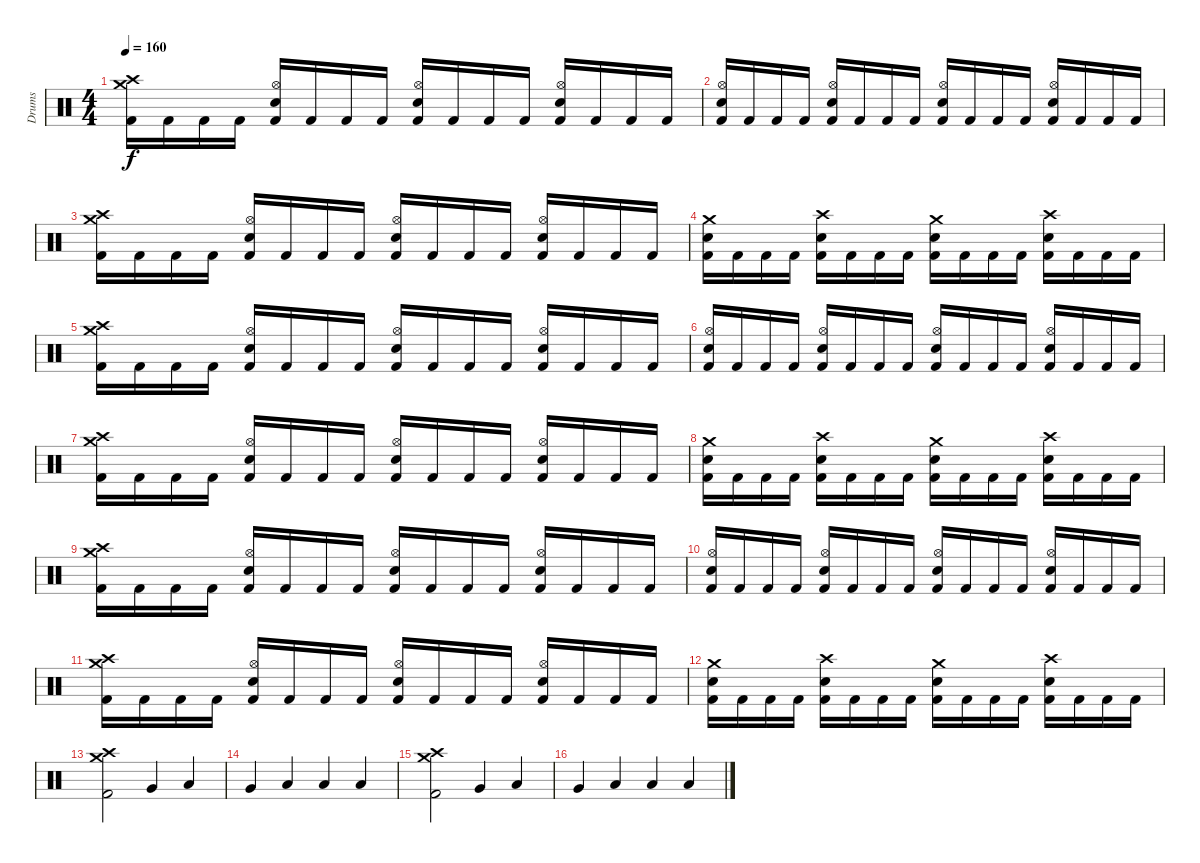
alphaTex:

\track ("Drums" "Drums") {instrument percussion}
\staff {score}
\articulation defaults
\ts (4 4)
\tempo 160
\clef neutral
\ks c
("Crash high (hit)" "Crash medium (hit)" "Kick (hit) 2").16{dy f} "Kick (hit) 2".16 "Kick (hit) 2".16 "Kick (hit) 2".16 ("Hi-Hat (open)" "Snare (hit) 2" "Kick (hit) 2").16 "Kick (hit) 2".16 "Kick (hit) 2".16 "Kick (hit) 2".16 ("Hi-Hat (open)" "Snare (hit) 2" "Kick (hit) 2").16 "Kick (hit) 2".16 "Kick (hit) 2".16 "Kick (hit) 2".16 ("Hi-Hat (open)" "Snare (hit) 2" "Kick (hit) 2").16 "Kick (hit) 2".16 "Kick (hit) 2".16 "Kick (hit) 2".16 |
("Hi-Hat (open)" "Snare (hit) 2" "Kick (hit) 2").16 "Kick (hit) 2".16 "Kick (hit) 2".16 "Kick (hit) 2".16 ("Hi-Hat (open)" "Snare (hit) 2" "Kick (hit) 2").16 "Kick (hit) 2".16 "Kick (hit) 2".16 "Kick (hit) 2".16 ("Hi-Hat (open)" "Snare (hit) 2" "Kick (hit) 2").16 "Kick (hit) 2".16 "Kick (hit) 2".16 "Kick (hit) 2".16 ("Hi-Hat (open)" "Snare (hit) 2" "Kick (hit) 2").16 "Kick (hit) 2".16 "Kick (hit) 2".16 "Kick (hit) 2".16 |
("Crash high (hit)" "Crash medium (hit)" "Kick (hit) 2").16 "Kick (hit) 2".16 "Kick (hit) 2".16 "Kick (hit) 2".16 ("Hi-Hat (open)" "Snare (hit) 2" "Kick (hit) 2").16 "Kick (hit) 2".16 "Kick (hit) 2".16 "Kick (hit) 2".16 ("Hi-Hat (open)" "Snare (hit) 2" "Kick (hit) 2").16 "Kick (hit) 2".16 "Kick (hit) 2".16 "Kick (hit) 2".16 ("Hi-Hat (open)" "Snare (hit) 2" "Kick (hit) 2").16 "Kick (hit) 2".16 "Kick (hit) 2".16 "Kick (hit) 2".16 |
("Crash medium (hit)" "Snare (hit) 2" "Kick (hit) 2").16 "Kick (hit) 2".16 "Kick (hit) 2".16 "Kick (hit) 2".16 ("Crash high (hit)" "Snare (hit) 2" "Kick (hit) 2").16 "Kick (hit) 2".16 "Kick (hit) 2".16 "Kick (hit) 2".16 ("Crash medium (hit)" "Snare (hit) 2" "Kick (hit) 2").16 "Kick (hit) 2".16 "Kick (hit) 2".16 "Kick (hit) 2".16 ("Crash high (hit)" "Snare (hit) 2" "Kick (hit) 2").16 "Kick (hit) 2".16 "Kick (hit) 2".16 "Kick (hit) 2".16 |
("Crash high (hit)" "Crash medium (hit)" "Kick (hit) 2").16 "Kick (hit) 2".16 "Kick (hit) 2".16 "Kick (hit) 2".16 ("Hi-Hat (open)" "Snare (hit) 2" "Kick (hit) 2").16 "Kick (hit) 2".16 "Kick (hit) 2".16 "Kick (hit) 2".16 ("Hi-Hat (open)" "Snare (hit) 2" "Kick (hit) 2").16 "Kick (hit) 2".16 "Kick (hit) 2".16 "Kick (hit) 2".16 ("Hi-Hat (open)" "Snare (hit) 2" "Kick (hit) 2").16 "Kick (hit) 2".16 "Kick (hit) 2".16 "Kick (hit) 2".16 |
("Hi-Hat (open)" "Snare (hit) 2" "Kick (hit) 2").16 "Kick (hit) 2".16 "Kick (hit) 2".16 "Kick (hit) 2".16 ("Hi-Hat (open)" "Snare (hit) 2" "Kick (hit) 2").16 "Kick (hit) 2".16 "Kick (hit) 2".16 "Kick (hit) 2".16 ("Hi-Hat (open)" "Snare (hit) 2" "Kick (hit) 2").16 "Kick (hit) 2".16 "Kick (hit) 2".16 "Kick (hit) 2".16 ("Hi-Hat (open)" "Snare (hit) 2" "Kick (hit) 2").16 "Kick (hit) 2".16 "Kick (hit) 2".16 "Kick (hit) 2".16 |
("Crash high (hit)" "Crash medium (hit)" "Kick (hit) 2").16 "Kick (hit) 2".16 "Kick (hit) 2".16 "Kick (hit) 2".16 ("Hi-Hat (open)" "Snare (hit) 2" "Kick (hit) 2").16 "Kick (hit) 2".16 "Kick (hit) 2".16 "Kick (hit) 2".16 ("Hi-Hat (open)" "Snare (hit) 2" "Kick (hit) 2").16 "Kick (hit) 2".16 "Kick (hit) 2".16 "Kick (hit) 2".16 ("Hi-Hat (open)" "Snare (hit) 2" "Kick (hit) 2").16 "Kick (hit) 2".16 "Kick (hit) 2".16 "Kick (hit) 2".16 |
("Crash medium (hit)" "Snare (hit) 2" "Kick (hit) 2").16 "Kick (hit) 2".16 "Kick (hit) 2".16 "Kick (hit) 2".16 ("Crash high (hit)" "Snare (hit) 2" "Kick (hit) 2").16 "Kick (hit) 2".16 "Kick (hit) 2".16 "Kick (hit) 2".16 ("Crash medium (hit)" "Snare (hit) 2" "Kick (hit) 2").16 "Kick (hit) 2".16 "Kick (hit) 2".16 "Kick (hit) 2".16 ("Crash high (hit)" "Snare (hit) 2" "Kick (hit) 2").16 "Kick (hit) 2".16 "Kick (hit) 2".16 "Kick (hit) 2".16 |
("Crash high (hit)" "Crash medium (hit)" "Kick (hit) 2").16 "Kick (hit) 2".16 "Kick (hit) 2".16 "Kick (hit) 2".16 ("Hi-Hat (open)" "Snare (hit) 2" "Kick (hit) 2").16 "Kick (hit) 2".16 "Kick (hit) 2".16 "Kick (hit) 2".16 ("Hi-Hat (open)" "Snare (hit) 2" "Kick (hit) 2").16 "Kick (hit) 2".16 "Kick (hit) 2".16 "Kick (hit) 2".16 ("Hi-Hat (open)" "Snare (hit) 2" "Kick (hit) 2").16 "Kick (hit) 2".16 "Kick (hit) 2".16 "Kick (hit) 2".16 |
("Hi-Hat (open)" "Snare (hit) 2" "Kick (hit) 2").16 "Kick (hit) 2".16 "Kick (hit) 2".16 "Kick (hit) 2".16 ("Hi-Hat (open)" "Snare (hit) 2" "Kick (hit) 2").16 "Kick (hit) 2".16 "Kick (hit) 2".16 "Kick (hit) 2".16 ("Hi-Hat (open)" "Snare (hit) 2" "Kick (hit) 2").16 "Kick (hit) 2".16 "Kick (hit) 2".16 "Kick (hit) 2".16 ("Hi-Hat (open)" "Snare (hit) 2" "Kick (hit) 2").16 "Kick (hit) 2".16 "Kick (hit) 2".16 "Kick (hit) 2".16 |
("Crash high (hit)" "Crash medium (hit)" "Kick (hit) 2").16 "Kick (hit) 2".16 "Kick (hit) 2".16 "Kick (hit) 2".16 ("Hi-Hat (open)" "Snare (hit) 2" "Kick (hit) 2").16 "Kick (hit) 2".16 "Kick (hit) 2".16 "Kick (hit) 2".16 ("Hi-Hat (open)" "Snare (hit) 2" "Kick (hit) 2").16 "Kick (hit) 2".16 "Kick (hit) 2".16 "Kick (hit) 2".16 ("Hi-Hat (open)" "Snare (hit) 2" "Kick (hit) 2").16 "Kick (hit) 2".16 "Kick (hit) 2".16 "Kick (hit) 2".16 |
("Crash medium (hit)" "Snare (hit) 2" "Kick (hit) 2").16 "Kick (hit) 2".16 "Kick (hit) 2".16 "Kick (hit) 2".16 ("Crash high (hit)" "Snare (hit) 2" "Kick (hit) 2").16 "Kick (hit) 2".16 "Kick (hit) 2".16 "Kick (hit) 2".16 ("Crash medium (hit)" "Snare (hit) 2" "Kick (hit) 2").16 "Kick (hit) 2".16 "Kick (hit) 2".16 "Kick (hit) 2".16 ("Crash high (hit)" "Snare (hit) 2" "Kick (hit) 2").16 "Kick (hit) 2".16 "Kick (hit) 2".16 "Kick (hit) 2".16 |
("Crash medium (hit)" "Crash high (hit)" "Kick (hit) 2").2 "Very Low Tom (hit)".4 "Low Floor Tom (hit)".4 |
"Very Low Tom (hit)".4 "Low Floor Tom (hit)".4 "Low Tom (hit)".4 "Low Floor Tom (hit)".4 |
("Crash medium (hit)" "Crash high (hit)" "Kick (hit) 2").2 "Very Low Tom (hit)".4 "Low Floor Tom (hit)".4 |
"Very Low Tom (hit)".4 "Low Floor Tom (hit)".4 "Low Tom (hit)".4 "Low Floor Tom (hit)".4
